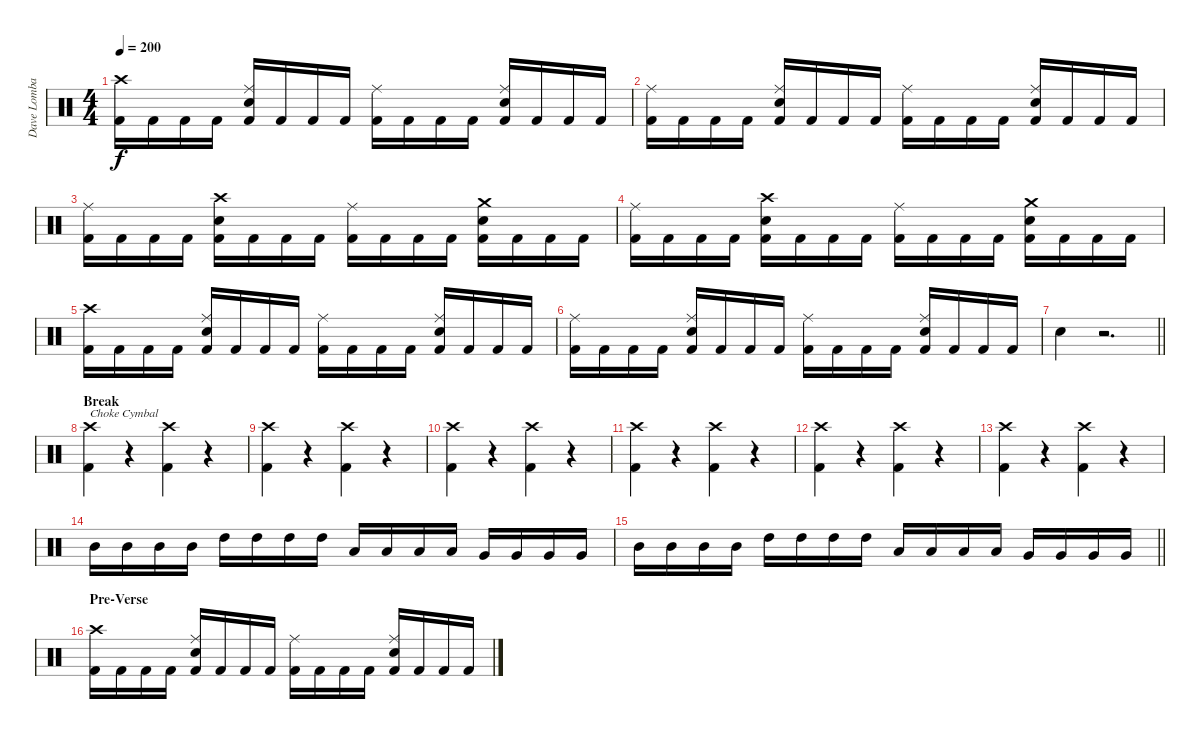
\track ("Dave Lombardo (Drums)" "Dave Lomba") {instrument percussion}
\staff {score}
\articulation defaults
\ts (4 4)
\tempo 200
\clef neutral
\ks c
("Crash high (hit)" "Kick (hit) 2").16{dy f} "Kick (hit) 2".16 "Kick (hit) 2".16 "Kick (hit) 2".16 ("Ride (middle)" "Snare (hit) 2" "Kick (hit) 2").16 "Kick (hit) 2".16 "Kick (hit) 2".16 "Kick (hit) 2".16 ("Ride (middle)" "Kick (hit) 2").16 "Kick (hit) 2".16 "Kick (hit) 2".16 "Kick (hit) 2".16 ("Ride (middle)" "Snare (hit) 2" "Kick (hit) 2").16 "Kick (hit) 2".16 "Kick (hit) 2".16 "Kick (hit) 2".16 |
("Ride (middle)" "Kick (hit) 2").16 "Kick (hit) 2".16 "Kick (hit) 2".16 "Kick (hit) 2".16 ("Ride (middle)" "Snare (hit) 2" "Kick (hit) 2").16 "Kick (hit) 2".16 "Kick (hit) 2".16 "Kick (hit) 2".16 ("Ride (middle)" "Kick (hit) 2").16 "Kick (hit) 2".16 "Kick (hit) 2".16 "Kick (hit) 2".16 ("Ride (middle)" "Snare (hit) 2" "Kick (hit) 2").16 "Kick (hit) 2".16 "Kick (hit) 2".16 "Kick (hit) 2".16 |
("Ride (middle)" "Kick (hit) 2").16 "Kick (hit) 2".16 "Kick (hit) 2".16 "Kick (hit) 2".16 ("Crash high (hit)" "Snare (hit) 2" "Kick (hit) 2").16 "Kick (hit) 2".16 "Kick (hit) 2".16 "Kick (hit) 2".16 ("Ride (middle)" "Kick (hit) 2").16 "Kick (hit) 2".16 "Kick (hit) 2".16 "Kick (hit) 2".16 ("Crash medium (hit)" "Snare (hit) 2" "Kick (hit) 2").16 "Kick (hit) 2".16 "Kick (hit) 2".16 "Kick (hit) 2".16 |
("Ride (middle)" "Kick (hit) 2").16 "Kick (hit) 2".16 "Kick (hit) 2".16 "Kick (hit) 2".16 ("Crash high (hit)" "Snare (hit) 2" "Kick (hit) 2").16 "Kick (hit) 2".16 "Kick (hit) 2".16 "Kick (hit) 2".16 ("Ride (middle)" "Kick (hit) 2").16 "Kick (hit) 2".16 "Kick (hit) 2".16 "Kick (hit) 2".16 ("Crash medium (hit)" "Snare (hit) 2" "Kick (hit) 2").16 "Kick (hit) 2".16 "Kick (hit) 2".16 "Kick (hit) 2".16 |
("Crash high (hit)" "Kick (hit) 2").16 "Kick (hit) 2".16 "Kick (hit) 2".16 "Kick (hit) 2".16 ("Ride (middle)" "Snare (hit) 2" "Kick (hit) 2").16 "Kick (hit) 2".16 "Kick (hit) 2".16 "Kick (hit) 2".16 ("Ride (middle)" "Kick (hit) 2").16 "Kick (hit) 2".16 "Kick (hit) 2".16 "Kick (hit) 2".16 ("Ride (middle)" "Snare (hit) 2" "Kick (hit) 2").16 "Kick (hit) 2".16 "Kick (hit) 2".16 "Kick (hit) 2".16 |
("Ride (middle)" "Kick (hit) 2").16 "Kick (hit) 2".16 "Kick (hit) 2".16 "Kick (hit) 2".16 ("Ride (middle)" "Snare (hit) 2" "Kick (hit) 2").16 "Kick (hit) 2".16 "Kick (hit) 2".16 "Kick (hit) 2".16 ("Ride (middle)" "Kick (hit) 2").16 "Kick (hit) 2".16 "Kick (hit) 2".16 "Kick (hit) 2".16 ("Ride (middle)" "Snare (hit) 2" "Kick (hit) 2").16 "Kick (hit) 2".16 "Kick (hit) 2".16 "Kick (hit) 2".16 |
\barLineRight lightlight "Snare (hit) 2".4
r.2{d} |
\section ("" "Break")
("Crash high (hit)" "Kick (hit) 2").4{txt "Choke Cymbal"} r.4{volume 0} ("Crash high (hit)" "Kick (hit) 2").4{volume 13} r.4{volume 0} |
("Crash high (hit)" "Kick (hit) 2").4{volume 13} r.4{volume 0} ("Crash high (hit)" "Kick (hit) 2").4{volume 13} r.4{volume 0} |
("Crash high (hit)" "Kick (hit) 2").4{volume 13} r.4{volume 0} ("Crash high (hit)" "Kick (hit) 2").4{volume 13} r.4{volume 0} |
("Crash high (hit)" "Kick (hit) 2").4{volume 13} r.4{volume 0} ("Crash high (hit)" "Kick (hit) 2").4{volume 13} r.4{volume 0} |
("Crash high (hit)" "Kick (hit) 2").4{volume 13} r.4{volume 0} ("Crash high (hit)" "Kick (hit) 2").4{volume 13} r.4{volume 0} |
("Crash high (hit)" "Kick (hit) 2").4{volume 13} r.4{volume 0} ("Crash high (hit)" "Kick (hit) 2").4{volume 13} r.4{volume 0} |
"Mid Tom (hit)".16{volume 13} "Mid Tom (hit)".16 "Mid Tom (hit)".16 "Mid Tom (hit)".16 "High Tom (hit)".16 "High Tom (hit)".16 "High Tom (hit)".16 "High Tom (hit)".16 "Low Tom (hit)".16 "Low Tom (hit)".16 "Low Tom (hit)".16 "Low Tom (hit)".16 "Very Low Tom (hit)".16 "Very Low Tom (hit)".16 "Very Low Tom (hit)".16 "Very Low Tom (hit)".16 |
\barLineRight lightlight "Mid Tom (hit)".16 "Mid Tom (hit)".16 "Mid Tom (hit)".16 "Mid Tom (hit)".16 "High Tom (hit)".16 "High Tom (hit)".16 "High Tom (hit)".16 "High Tom (hit)".16 "Low Tom (hit)".16 "Low Tom (hit)".16 "Low Tom (hit)".16 "Low Tom (hit)".16 "Very Low Tom (hit)".16 "Very Low Tom (hit)".16 "Very Low Tom (hit)".16 "Very Low Tom (hit)".16
|
\section ("" "Pre-Verse")
("Crash high (hit)" "Kick (hit) 2").16 "Kick (hit) 2".16 "Kick (hit) 2".16 "Kick (hit) 2".16 ("Ride (middle)" "Snare (hit) 2" "Kick (hit) 2").16 "Kick (hit) 2".16 "Kick (hit) 2".16 "Kick (hit) 2".16 ("Ride (middle)" "Kick (hit) 2").16 "Kick (hit) 2".16 "Kick (hit) 2".16 "Kick (hit) 2".16 ("Ride (middle)" "Snare (hit) 2" "Kick (hit) 2").16 "Kick (hit) 2".16 "Kick (hit) 2".16 "Kick (hit) 2".16
